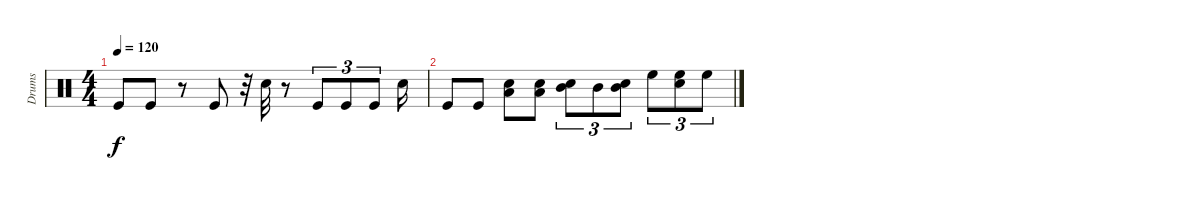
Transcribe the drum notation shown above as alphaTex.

\track ("Drums" "Drums") {instrument percussion}
\staff {score}
\articulation defaults
\ts (4 4)
\tempo 120
\clef neutral
\ks c "Kick (hit)".8{dy f} "Kick (hit)".8
r.8 "Kick (hit)".8 r.32 "Snare (hit) 2".32 r.8 "Kick (hit)".8{tu (3 2)} "Kick (hit)".8{tu (3 2)} "Kick (hit)".8{tu (3 2)} "Snare (hit) 2".16 |
"Kick (hit)".8 "Kick (hit)".8 ("Low Tom (hit)" "Snare (hit) 2").8 ("Low Tom (hit)" "Snare (hit) 2").8 ("Mid Tom (hit)" "Snare (hit) 2").8{tu (3 2)} "Mid Tom (hit)".8{tu (3 2)} ("Mid Tom (hit)" "Snare (hit) 2").8{tu (3 2)} "High Floor Tom (hit)".8{tu (3 2)} ("High Floor Tom (hit)" "Snare (hit) 2").8{tu (3 2)} "High Floor Tom (hit)".8{tu (3 2)}
